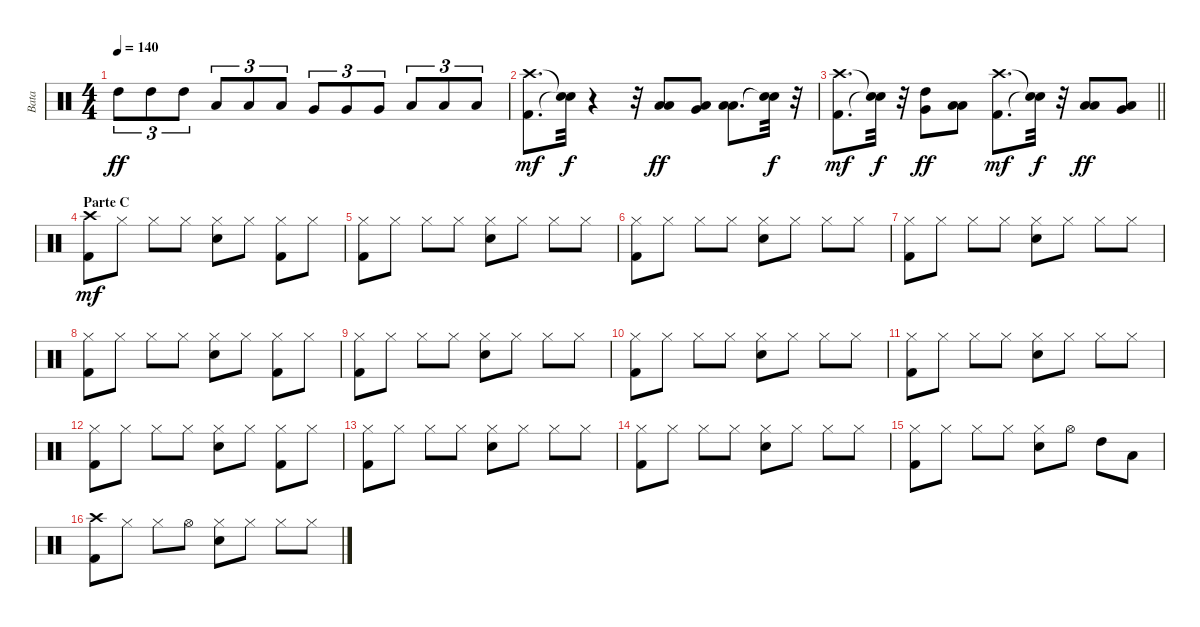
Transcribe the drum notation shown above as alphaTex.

\track ("Bata" "Bata") {instrument percussion}
\staff {score}
\articulation defaults
\ts (4 4)
\tempo 140
\clef neutral
\ks c "High Tom (hit)".8{tu (3 2) dy ff} "High Tom (hit)".8{tu (3 2)} "High Tom (hit)".8{tu (3 2)} "Low Tom (hit)".8{tu (3 2)} "Low Tom (hit)".8{tu (3 2)} "Low Tom (hit)".8{tu (3 2)} "Very Low Tom (hit)".8{tu (3 2)} "Very Low Tom (hit)".8{tu (3 2)} "Very Low Tom (hit)".8{tu (3 2)} "Low Floor Tom (hit)".8{tu (3 2)} "Low Floor Tom (hit)".8{tu (3 2)} "Low Floor Tom (hit)".8{tu (3 2)}
|
("Crash high (hit)" "Kick (hit) 2").8{d dy mf} ("Snare (hit)"{t} "Snare (hit)"{t}).32{dy f} r.4 r.32 ("Low Tom (hit)" "Low Floor Tom (hit)").8{dy ff} ("Low Floor Tom (hit)" "Very Low Tom (hit)").8 ("Low Floor Tom (hit)" "Low Tom (hit)").8{d} ("Snare (hit)"{t} "Snare (hit)"{t}).32{dy f} r.32 |
\barLineRight lightlight
("Crash high (hit)" "Kick (hit) 2").8{d dy mf} ("Snare (hit)"{t} "Snare (hit)"{t}).32{dy f} r.32 ("Very Low Tom (hit)" "High Tom (hit)").8{dy ff} ("Low Tom (hit)" "Low Floor Tom (hit)").8 ("Kick (hit) 2" "Crash high (hit)").8{d dy mf} ("Snare (hit)"{t} "Snare (hit)"{t}).32{dy f} r.32 ("Low Tom (hit)" "Low Floor Tom (hit)").8{dy ff} ("Very Low Tom (hit)" "Low Floor Tom (hit)").8 |
\section ("" "Parte C")
("Kick (hit) 2" "Crash high (hit)").8{dy mf} "Hi-Hat (closed)".8 "Hi-Hat (closed)".8 "Hi-Hat (closed)".8 ("Snare (hit) 2" "Hi-Hat (closed)").8 "Hi-Hat (closed)".8 ("Hi-Hat (closed)" "Kick (hit) 2").8 "Hi-Hat (closed)".8 |
("Kick (hit) 2" "Hi-Hat (closed)").8 "Hi-Hat (closed)".8 "Hi-Hat (closed)".8 "Hi-Hat (closed)".8 ("Hi-Hat (closed)" "Snare (hit) 2").8 "Hi-Hat (closed)".8 "Hi-Hat (closed)".8 "Hi-Hat (closed)".8 |
("Kick (hit) 2" "Hi-Hat (closed)").8 "Hi-Hat (closed)".8 "Hi-Hat (closed)".8 "Hi-Hat (closed)".8 ("Snare (hit) 2" "Hi-Hat (closed)").8 "Hi-Hat (closed)".8 "Hi-Hat (closed)".8 "Hi-Hat (closed)".8 |
("Kick (hit) 2" "Hi-Hat (closed)").8 "Hi-Hat (closed)".8 "Hi-Hat (closed)".8 "Hi-Hat (closed)".8 ("Hi-Hat (closed)" "Snare (hit) 2").8 "Hi-Hat (closed)".8 "Hi-Hat (closed)".8 "Hi-Hat (closed)".8 |
("Hi-Hat (closed)" "Kick (hit) 2").8 "Hi-Hat (closed)".8 "Hi-Hat (closed)".8 "Hi-Hat (closed)".8 ("Hi-Hat (closed)" "Snare (hit) 2").8 "Hi-Hat (closed)".8 ("Hi-Hat (closed)" "Kick (hit) 2").8 "Hi-Hat (closed)".8 |
("Kick (hit) 2" "Hi-Hat (closed)").8 "Hi-Hat (closed)".8 "Hi-Hat (closed)".8 "Hi-Hat (closed)".8 ("Snare (hit) 2" "Hi-Hat (closed)").8 "Hi-Hat (closed)".8 "Hi-Hat (closed)".8 "Hi-Hat (closed)".8 |
("Hi-Hat (closed)" "Kick (hit) 2").8 "Hi-Hat (closed)".8 "Hi-Hat (closed)".8 "Hi-Hat (closed)".8 ("Hi-Hat (closed)" "Snare (hit) 2").8 "Hi-Hat (closed)".8 "Hi-Hat (closed)".8 "Hi-Hat (closed)".8 |
("Kick (hit) 2" "Hi-Hat (closed)").8 "Hi-Hat (closed)".8 "Hi-Hat (closed)".8 "Hi-Hat (closed)".8 ("Snare (hit) 2" "Hi-Hat (closed)").8 "Hi-Hat (closed)".8 "Hi-Hat (closed)".8 "Hi-Hat (closed)".8 |
("Hi-Hat (closed)" "Kick (hit) 2").8 "Hi-Hat (closed)".8 "Hi-Hat (closed)".8 "Hi-Hat (closed)".8 ("Hi-Hat (closed)" "Snare (hit) 2").8 "Hi-Hat (closed)".8 ("Hi-Hat (closed)" "Kick (hit) 2").8 "Hi-Hat (closed)".8 |
("Hi-Hat (closed)" "Kick (hit) 2").8 "Hi-Hat (closed)".8 "Hi-Hat (closed)".8 "Hi-Hat (closed)".8 ("Hi-Hat (closed)" "Snare (hit) 2").8 "Hi-Hat (closed)".8 "Hi-Hat (closed)".8 "Hi-Hat (closed)".8 |
("Kick (hit) 2" "Hi-Hat (closed)").8 "Hi-Hat (closed)".8 "Hi-Hat (closed)".8 "Hi-Hat (closed)".8 ("Hi-Hat (closed)" "Snare (hit) 2").8 "Hi-Hat (closed)".8 "Hi-Hat (closed)".8 "Hi-Hat (closed)".8 |
("Kick (hit) 2" "Hi-Hat (closed)").8 "Hi-Hat (closed)".8 "Hi-Hat (closed)".8 "Hi-Hat (closed)".8 ("Hi-Hat (closed)" "Snare (hit) 2").8 "Hi-Hat (open)".8 "High Tom (hit)".8 "Low Tom (hit)".8 |
("Crash high (hit)" "Kick (hit) 2").8 "Hi-Hat (closed)".8 "Hi-Hat (closed)".8 "Hi-Hat (open)".8 ("Snare (hit) 2" "Hi-Hat (closed)").8 "Hi-Hat (closed)".8 "Hi-Hat (closed)".8 "Hi-Hat (closed)".8
